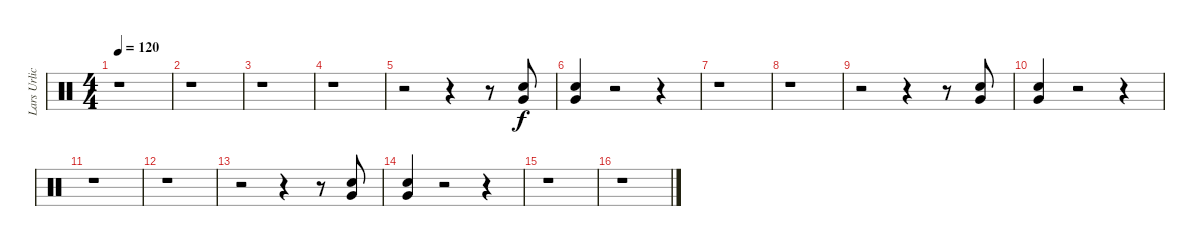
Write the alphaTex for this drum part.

\track ("Lars Urlich (drums)" "Lars Urlic") {instrument percussion}
\staff {score}
\articulation defaults
\ts (4 4)
\tempo 120
\clef neutral
\ks c
r.1{dy f} |
r.1 |
r.1 |
r.1 |
r.2 r.4 r.8 ("Snare (hit) 2" "Very Low Tom (hit)").8 |
("Snare (hit) 2" "Very Low Tom (hit)").4 r.2 r.4 |
r.1 |
r.1 |
r.2 r.4 r.8 ("Snare (hit) 2" "Very Low Tom (hit)").8 |
("Snare (hit) 2" "Very Low Tom (hit)").4 r.2 r.4 |
r.1 |
r.1 |
r.2 r.4 r.8 ("Snare (hit) 2" "Very Low Tom (hit)").8 |
("Snare (hit) 2" "Very Low Tom (hit)").4 r.2 r.4 |
r.1 |
r.1
